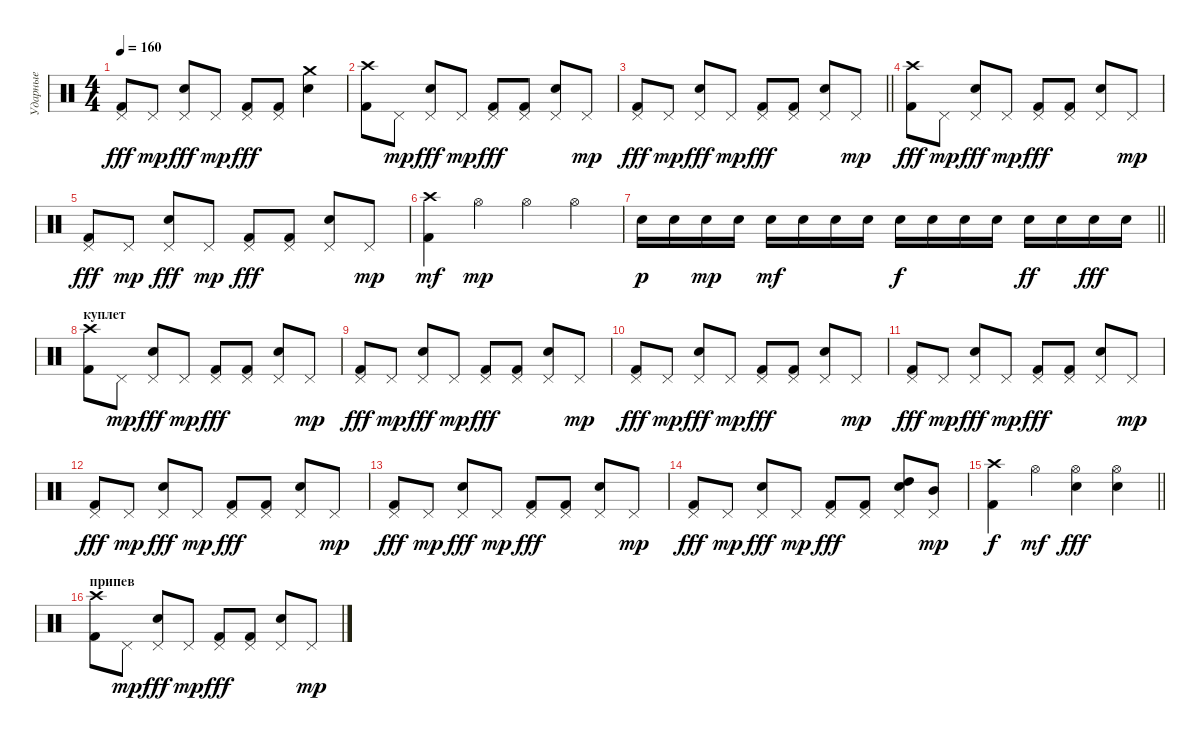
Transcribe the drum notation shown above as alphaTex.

\track ("Ударные" "Ударные") {instrument percussion}
\staff {score}
\articulation defaults
\ts (4 4)
\tempo 160
\clef neutral
\ks c
("Pedal Hi-Hat (hit)" "Kick (hit) 2").8{dy fff} "Pedal Hi-Hat (hit)".8{dy mp} ("Pedal Hi-Hat (hit)" "Electric Snare (hit)").8{dy fff} "Pedal Hi-Hat (hit)".8{dy mp} ("Pedal Hi-Hat (hit)" "Kick (hit) 2").8{dy fff} ("Pedal Hi-Hat (hit)" "Kick (hit) 2").8 ("Crash medium (hit)" "Electric Snare (hit)").4 |
("Crash high (hit)" "Kick (hit) 2").8 "Pedal Hi-Hat (hit)".8{dy mp} ("Pedal Hi-Hat (hit)" "Electric Snare (hit)").8{dy fff} "Pedal Hi-Hat (hit)".8{dy mp} ("Pedal Hi-Hat (hit)" "Kick (hit) 2").8{dy fff} ("Pedal Hi-Hat (hit)" "Kick (hit) 2").8 ("Pedal Hi-Hat (hit)" "Electric Snare (hit)").8 "Pedal Hi-Hat (hit)".8{dy mp} |
\barLineRight lightlight
("Pedal Hi-Hat (hit)" "Kick (hit) 2").8{dy fff} "Pedal Hi-Hat (hit)".8{dy mp} ("Pedal Hi-Hat (hit)" "Electric Snare (hit)").8{dy fff} "Pedal Hi-Hat (hit)".8{dy mp} ("Pedal Hi-Hat (hit)" "Kick (hit) 2").8{dy fff} ("Pedal Hi-Hat (hit)" "Kick (hit) 2").8 ("Pedal Hi-Hat (hit)" "Electric Snare (hit)").8 "Pedal Hi-Hat (hit)".8{dy mp} |
\section ("" "")
("Crash high (hit)" "Kick (hit) 2").8{dy fff} "Pedal Hi-Hat (hit)".8{dy mp} ("Pedal Hi-Hat (hit)" "Electric Snare (hit)").8{dy fff} "Pedal Hi-Hat (hit)".8{dy mp} ("Pedal Hi-Hat (hit)" "Kick (hit) 2").8{dy fff} ("Pedal Hi-Hat (hit)" "Kick (hit) 2").8 ("Pedal Hi-Hat (hit)" "Electric Snare (hit)").8 "Pedal Hi-Hat (hit)".8{dy mp} |
("Pedal Hi-Hat (hit)" "Kick (hit) 2").8{dy fff} "Pedal Hi-Hat (hit)".8{dy mp} ("Pedal Hi-Hat (hit)" "Electric Snare (hit)").8{dy fff} "Pedal Hi-Hat (hit)".8{dy mp} ("Pedal Hi-Hat (hit)" "Kick (hit) 2").8{dy fff} ("Pedal Hi-Hat (hit)" "Kick (hit) 2").8 ("Pedal Hi-Hat (hit)" "Electric Snare (hit)").8 "Pedal Hi-Hat (hit)".8{dy mp} |
("Kick (hit) 2" "Crash high (hit)").4{dy mf} "Hi-Hat (open)".4{dy mp} "Hi-Hat (open)".4 "Hi-Hat (open)".4 |
\barLineRight lightlight "Electric Snare (hit)".16{dy p} "Electric Snare (hit)".16 "Electric Snare (hit)".16{dy mp} "Electric Snare (hit)".16 "Electric Snare (hit)".16{dy mf} "Electric Snare (hit)".16 "Electric Snare (hit)".16 "Electric Snare (hit)".16 "Electric Snare (hit)".16{dy f} "Electric Snare (hit)".16 "Electric Snare (hit)".16 "Electric Snare (hit)".16 "Electric Snare (hit)".16{dy ff} "Electric Snare (hit)".16 "Electric Snare (hit)".16{dy fff} "Electric Snare (hit)".16
|
\section ("" "куплет")
("Crash high (hit)" "Kick (hit) 2").8 "Pedal Hi-Hat (hit)".8{dy mp} ("Pedal Hi-Hat (hit)" "Electric Snare (hit)").8{dy fff} "Pedal Hi-Hat (hit)".8{dy mp} ("Pedal Hi-Hat (hit)" "Kick (hit) 2").8{dy fff} ("Pedal Hi-Hat (hit)" "Kick (hit) 2").8 ("Pedal Hi-Hat (hit)" "Electric Snare (hit)").8 "Pedal Hi-Hat (hit)".8{dy mp} |
("Pedal Hi-Hat (hit)" "Kick (hit) 2").8{dy fff} "Pedal Hi-Hat (hit)".8{dy mp} ("Pedal Hi-Hat (hit)" "Electric Snare (hit)").8{dy fff} "Pedal Hi-Hat (hit)".8{dy mp} ("Pedal Hi-Hat (hit)" "Kick (hit) 2").8{dy fff} ("Pedal Hi-Hat (hit)" "Kick (hit) 2").8 ("Pedal Hi-Hat (hit)" "Electric Snare (hit)").8 "Pedal Hi-Hat (hit)".8{dy mp} |
("Pedal Hi-Hat (hit)" "Kick (hit) 2").8{dy fff} "Pedal Hi-Hat (hit)".8{dy mp} ("Pedal Hi-Hat (hit)" "Electric Snare (hit)").8{dy fff} "Pedal Hi-Hat (hit)".8{dy mp} ("Pedal Hi-Hat (hit)" "Kick (hit) 2").8{dy fff} ("Pedal Hi-Hat (hit)" "Kick (hit) 2").8 ("Pedal Hi-Hat (hit)" "Electric Snare (hit)").8 "Pedal Hi-Hat (hit)".8{dy mp} |
("Pedal Hi-Hat (hit)" "Kick (hit) 2").8{dy fff} "Pedal Hi-Hat (hit)".8{dy mp} ("Pedal Hi-Hat (hit)" "Electric Snare (hit)").8{dy fff} "Pedal Hi-Hat (hit)".8{dy mp} ("Pedal Hi-Hat (hit)" "Kick (hit) 2").8{dy fff} ("Pedal Hi-Hat (hit)" "Kick (hit) 2").8 ("Pedal Hi-Hat (hit)" "Electric Snare (hit)").8 "Pedal Hi-Hat (hit)".8{dy mp} |
("Pedal Hi-Hat (hit)" "Kick (hit) 2").8{dy fff} "Pedal Hi-Hat (hit)".8{dy mp} ("Pedal Hi-Hat (hit)" "Electric Snare (hit)").8{dy fff} "Pedal Hi-Hat (hit)".8{dy mp} ("Pedal Hi-Hat (hit)" "Kick (hit) 2").8{dy fff} ("Pedal Hi-Hat (hit)" "Kick (hit) 2").8 ("Pedal Hi-Hat (hit)" "Electric Snare (hit)").8 "Pedal Hi-Hat (hit)".8{dy mp} |
("Pedal Hi-Hat (hit)" "Kick (hit) 2").8{dy fff} "Pedal Hi-Hat (hit)".8{dy mp} ("Pedal Hi-Hat (hit)" "Electric Snare (hit)").8{dy fff} "Pedal Hi-Hat (hit)".8{dy mp} ("Pedal Hi-Hat (hit)" "Kick (hit) 2").8{dy fff} ("Pedal Hi-Hat (hit)" "Kick (hit) 2").8 ("Pedal Hi-Hat (hit)" "Electric Snare (hit)").8 "Pedal Hi-Hat (hit)".8{dy mp} |
("Pedal Hi-Hat (hit)" "Kick (hit) 2").8{dy fff} "Pedal Hi-Hat (hit)".8{dy mp} ("Pedal Hi-Hat (hit)" "Electric Snare (hit)").8{dy fff} "Pedal Hi-Hat (hit)".8{dy mp} ("Pedal Hi-Hat (hit)" "Kick (hit) 2").8{dy fff} ("Pedal Hi-Hat (hit)" "Kick (hit) 2").8 ("Pedal Hi-Hat (hit)" "Electric Snare (hit)" "High Tom (hit)").8 ("Pedal Hi-Hat (hit)" "Mid Tom (hit)").8{dy mp} |
\barLineRight lightlight
("Kick (hit) 2" "Crash high (hit)").4{dy f} "Hi-Hat (open)".4{dy mf} ("Electric Snare (hit)" "Hi-Hat (open)").4{dy fff} ("Electric Snare (hit)" "Hi-Hat (open)").4 |
\section ("" "припев")
("Crash high (hit)" "Kick (hit) 2").8 "Pedal Hi-Hat (hit)".8{dy mp} ("Pedal Hi-Hat (hit)" "Electric Snare (hit)").8{dy fff} "Pedal Hi-Hat (hit)".8{dy mp} ("Pedal Hi-Hat (hit)" "Kick (hit) 2").8{dy fff} ("Pedal Hi-Hat (hit)" "Kick (hit) 2").8 ("Pedal Hi-Hat (hit)" "Electric Snare (hit)").8 "Pedal Hi-Hat (hit)".8{dy mp}
